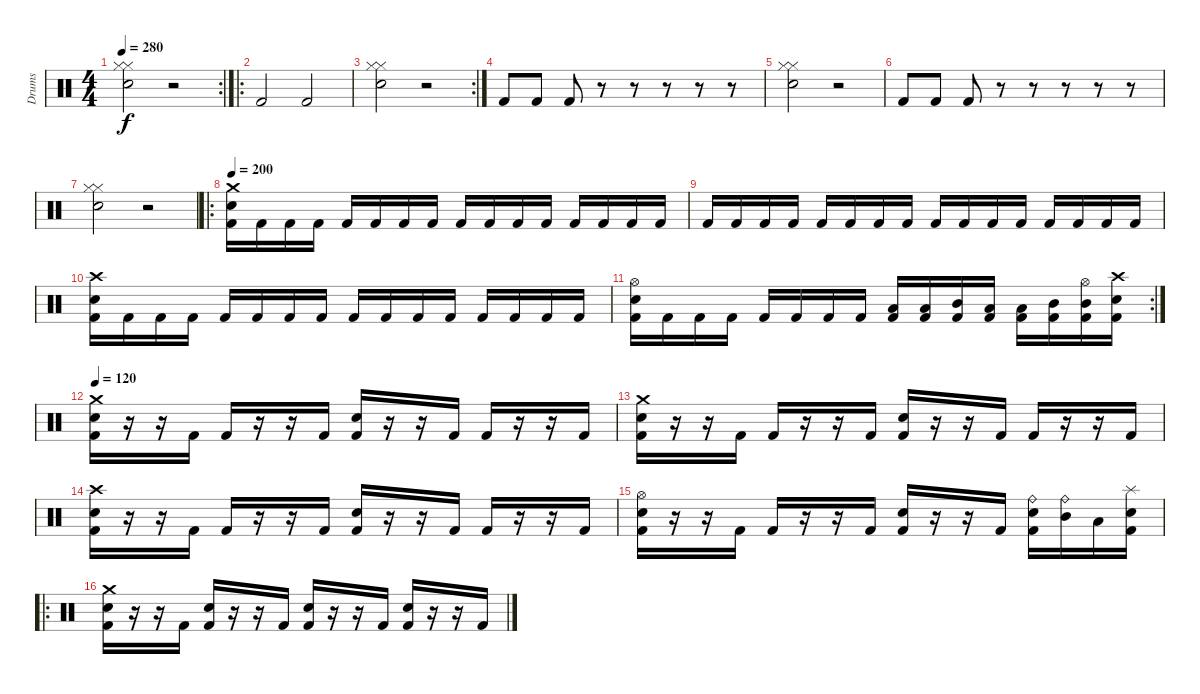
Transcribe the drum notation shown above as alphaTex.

\track ("Drums" "Drums") {instrument percussion}
\staff {score}
\articulation defaults
\rc 2
\ts (4 4)
\tempo 280
\clef neutral
\ks c
("Hi-Hat (closed)" "Hi-Hat (closed)" "Electric Snare (hit)").2{dy f} r.2 |
\ro "Kick (hit) 2".2 "Kick (hit) 2".2
|
\rc 2
("Hi-Hat (closed)" "Hi-Hat (closed)" "Electric Snare (hit)").2 r.2 |
"Kick (hit) 2".8 "Kick (hit) 2".8 "Kick (hit) 2".8 r.8 r.8 r.8 r.8 r.8 |
("Hi-Hat (closed)" "Hi-Hat (closed)" "Electric Snare (hit)").2 r.2 |
"Kick (hit) 2".8 "Kick (hit) 2".8 "Kick (hit) 2".8 r.8 r.8 r.8 r.8 r.8 |
("Hi-Hat (closed)" "Hi-Hat (closed)" "Electric Snare (hit)").2 r.2 |
\ro
\tempo 200
("Crash medium (hit)" "Electric Snare (hit)" "Kick (hit) 2").16 "Kick (hit) 2".16 "Kick (hit) 2".16 "Kick (hit) 2".16 "Kick (hit) 2".16 "Kick (hit) 2".16 "Kick (hit) 2".16 "Kick (hit) 2".16 "Kick (hit) 2".16 "Kick (hit) 2".16 "Kick (hit) 2".16 "Kick (hit) 2".16 "Kick (hit) 2".16 "Kick (hit) 2".16 "Kick (hit) 2".16 "Kick (hit) 2".16 |
"Kick (hit) 2".16 "Kick (hit) 2".16 "Kick (hit) 2".16 "Kick (hit) 2".16 "Kick (hit) 2".16 "Kick (hit) 2".16 "Kick (hit) 2".16 "Kick (hit) 2".16 "Kick (hit) 2".16 "Kick (hit) 2".16 "Kick (hit) 2".16 "Kick (hit) 2".16 "Kick (hit) 2".16 "Kick (hit) 2".16 "Kick (hit) 2".16 "Kick (hit) 2".16 |
("Crash high (hit)" "Electric Snare (hit)" "Kick (hit) 2").16 "Kick (hit) 2".16 "Kick (hit) 2".16 "Kick (hit) 2".16 "Kick (hit) 2".16 "Kick (hit) 2".16 "Kick (hit) 2".16 "Kick (hit) 2".16 "Kick (hit) 2".16 "Kick (hit) 2".16 "Kick (hit) 2".16 "Kick (hit) 2".16 "Kick (hit) 2".16 "Kick (hit) 2".16 "Kick (hit) 2".16 "Kick (hit) 2".16 |
\rc 2
("Hi-Hat (open)" "Electric Snare (hit)" "Kick (hit) 2").16 "Kick (hit) 2".16 "Kick (hit) 2".16 "Kick (hit) 2".16 "Kick (hit) 2".16 "Kick (hit) 2".16 "Kick (hit) 2".16 "Kick (hit) 2".16 ("Low Tom (hit)" "Kick (hit) 2").16 ("Low Tom (hit)" "Kick (hit) 2").16 ("Mid Tom (hit)" "Kick (hit) 2").16 ("Low Floor Tom (hit)" "Kick (hit) 2").16 ("Low Tom (hit)" "Kick (hit) 2").16 ("Mid Tom (hit)" "Kick (hit) 2").16 ("Hi-Hat (open)" "Mid Tom (hit)" "Kick (hit) 2").16 ("Crash high (hit)" "Electric Snare (hit)" "Kick (hit) 2").16 |
\tempo 120
("Crash medium (hit)" "Electric Snare (hit)" "Kick (hit) 2").16 r.16 r.16 "Kick (hit) 2".16 "Kick (hit) 2".16 r.16 r.16 "Kick (hit) 2".16 ("Electric Snare (hit)" "Kick (hit) 2").16 r.16 r.16 "Kick (hit) 2".16 "Kick (hit) 2".16 r.16 r.16 "Kick (hit) 2".16 |
("Crash medium (hit)" "Electric Snare (hit)" "Kick (hit) 2").16 r.16 r.16 "Kick (hit) 2".16 "Kick (hit) 2".16 r.16 r.16 "Kick (hit) 2".16 ("Electric Snare (hit)" "Kick (hit) 2").16 r.16 r.16 "Kick (hit) 2".16 "Kick (hit) 2".16 r.16 r.16 "Kick (hit) 2".16 |
("Crash high (hit)" "Electric Snare (hit)" "Kick (hit) 2").16 r.16 r.16 "Kick (hit) 2".16 "Kick (hit) 2".16 r.16 r.16 "Kick (hit) 2".16 ("Electric Snare (hit)" "Kick (hit) 2").16 r.16 r.16 "Kick (hit) 2".16 "Kick (hit) 2".16 r.16 r.16 "Kick (hit) 2".16 |
("Hi-Hat (open)" "Electric Snare (hit)" "Kick (hit) 2").16 r.16 r.16 "Kick (hit) 2".16 "Kick (hit) 2".16 r.16 r.16 "Kick (hit) 2".16 ("Electric Snare (hit)" "Kick (hit) 2").16 r.16 r.16 "Kick (hit) 2".16 ("Ride (bell)" "Electric Snare (hit)" "Kick (hit) 2").16 ("Ride (bell)" "Mid Tom (hit)").16 "Low Tom (hit)".16 ("Splash (hit)" "Electric Snare (hit)" "Kick (hit) 2").16 |
\ro
("Crash medium (hit)" "Electric Snare (hit)" "Kick (hit) 2").16 r.16 r.16 "Kick (hit) 2".16 ("Electric Snare (hit)" "Kick (hit) 2").16 r.16 r.16 "Kick (hit) 2".16 ("Electric Snare (hit)" "Kick (hit) 2").16 r.16 r.16 "Kick (hit) 2".16 ("Electric Snare (hit)" "Kick (hit) 2").16 r.16 r.16 "Kick (hit) 2".16
